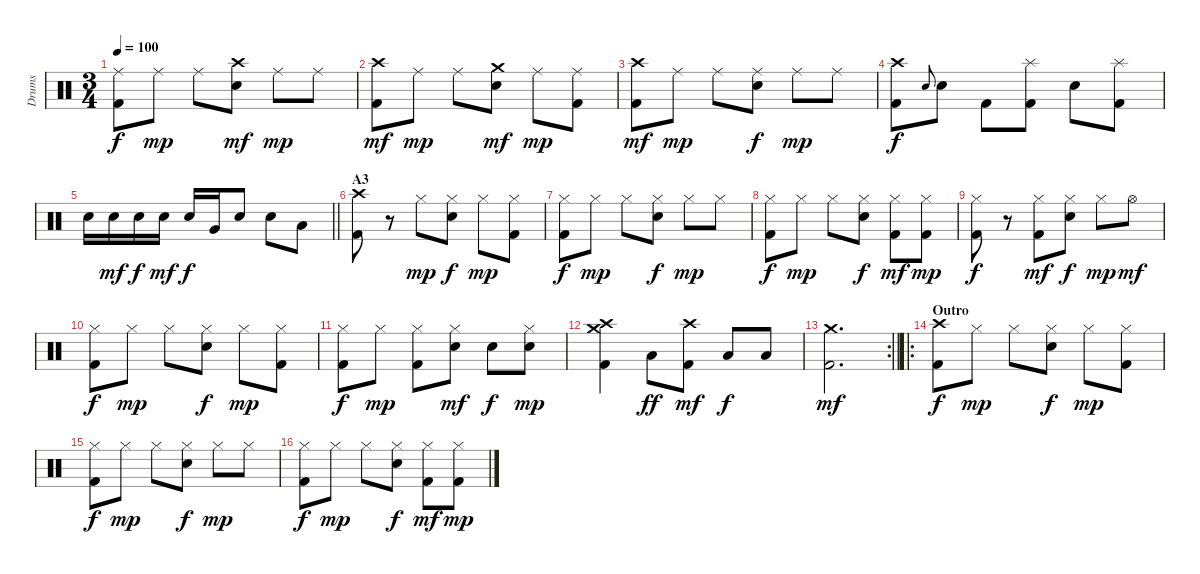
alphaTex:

\track ("Drums" "Drums") {instrument percussion}
\staff {score}
\articulation defaults
\ts (3 4)
\tempo 100
\clef neutral
\ks c
("Ride (middle)" "Kick (hit) 2").8{dy f} "Ride (middle)".8{dy mp} "Ride (middle)".8 ("Crash high (hit)" "Electric Snare (hit)").8{dy mf} "Ride (middle)".8{dy mp} "Ride (middle)".8 |
("Crash high (hit)" "Kick (hit) 2").8{dy mf} "Ride (middle)".8{dy mp} "Ride (middle)".8 ("Crash medium (hit)" "Electric Snare (hit)").8{dy mf} "Ride (middle)".8{dy mp} ("Ride (middle)" "Kick (hit) 2").8 |
("Crash high (hit)" "Kick (hit) 2").8{dy mf} "Ride (middle)".8{dy mp} "Ride (middle)".8 ("Ride (middle)" "Electric Snare (hit)").8{dy f} "Ride (middle)".8{dy mp} "Ride (middle)".8 |
("Crash high (hit)" "Kick (hit) 2").8{dy f} "Electric Snare (hit)".8{gr onbeat} "Electric Snare (hit)".8 "Kick (hit) 2".8 ("Splash (hit)" "Kick (hit) 2").8 "Electric Snare (hit)".8 ("Splash (hit)" "Kick (hit) 2").8 |
\barLineRight lightlight "Electric Snare (hit)".16 "Electric Snare (hit)".16{dy mf} "Electric Snare (hit)".16{dy f} "Electric Snare (hit)".16{dy mf} "Electric Snare (hit)".16{dy f} "Very Low Tom (hit)".16 "Electric Snare (hit)".8 "Electric Snare (hit)".8 "Low Floor Tom (hit)".8
|
\section ("" "A3")
("Crash high (hit)" "Kick (hit) 2").8 r.8 "Hi-Hat (closed)".8{dy mp} ("Hi-Hat (closed)" "Electric Snare (hit)").8{dy f} "Hi-Hat (closed)".8{dy mp} ("Hi-Hat (closed)" "Kick (hit) 2").8 |
("Hi-Hat (closed)" "Kick (hit) 2").8{dy f} "Hi-Hat (closed)".8{dy mp} "Hi-Hat (closed)".8 ("Hi-Hat (closed)" "Electric Snare (hit)").8{dy f} "Hi-Hat (closed)".8{dy mp} "Hi-Hat (closed)".8 |
("Hi-Hat (closed)" "Kick (hit) 2").8{dy f} "Hi-Hat (closed)".8{dy mp} "Hi-Hat (closed)".8 ("Hi-Hat (closed)" "Electric Snare (hit)").8{dy f} ("Hi-Hat (closed)" "Kick (hit) 2").8{dy mf} ("Hi-Hat (closed)" "Kick (hit) 2").8{dy mp} |
("Hi-Hat (closed)" "Kick (hit) 2").8{dy f} r.8 ("Hi-Hat (closed)" "Kick (hit) 2").8{dy mf} ("Hi-Hat (closed)" "Electric Snare (hit)").8{dy f} "Hi-Hat (closed)".8{dy mp} "Hi-Hat (open)".8{dy mf} |
("Hi-Hat (closed)" "Kick (hit) 2").8{dy f} "Hi-Hat (closed)".8{dy mp} "Hi-Hat (closed)".8 ("Hi-Hat (closed)" "Electric Snare (hit)").8{dy f} "Hi-Hat (closed)".8{dy mp} ("Hi-Hat (closed)" "Kick (hit) 2").8 |
("Hi-Hat (closed)" "Kick (hit) 2").8{dy f} "Hi-Hat (closed)".8{dy mp} ("Hi-Hat (closed)" "Kick (hit) 2").8 ("Hi-Hat (closed)" "Electric Snare (hit)").8{dy mf} "Electric Snare (hit)".8{dy f} ("Hi-Hat (closed)" "Electric Snare (hit)").8{dy mp} |
("Crash high (hit)" "Crash medium (hit)" "Kick (hit) 2").4 "Low Tom (hit)".8{dy ff} ("Crash high (hit)" "Kick (hit) 2").8{dy mf} "Low Tom (hit)".8{dy f} "Low Tom (hit)".8 |
\rc 2
\barLineRight lightlight
("Crash medium (hit)" "Kick (hit) 2").2{d dy mf} |
\ro
\section ("" "Outro")
("Crash high (hit)" "Kick (hit) 2").8{dy f} "Hi-Hat (closed)".8{dy mp} "Hi-Hat (closed)".8 ("Hi-Hat (closed)" "Electric Snare (hit)").8{dy f} "Hi-Hat (closed)".8{dy mp} ("Hi-Hat (closed)" "Kick (hit) 2").8 |
("Hi-Hat (closed)" "Kick (hit) 2").8{dy f} "Hi-Hat (closed)".8{dy mp} "Hi-Hat (closed)".8 ("Hi-Hat (closed)" "Electric Snare (hit)").8{dy f} "Hi-Hat (closed)".8{dy mp} "Hi-Hat (closed)".8 |
("Hi-Hat (closed)" "Kick (hit) 2").8{dy f} "Hi-Hat (closed)".8{dy mp} "Hi-Hat (closed)".8 ("Hi-Hat (closed)" "Electric Snare (hit)").8{dy f} ("Hi-Hat (closed)" "Kick (hit) 2").8{dy mf} ("Hi-Hat (closed)" "Kick (hit) 2").8{dy mp}
